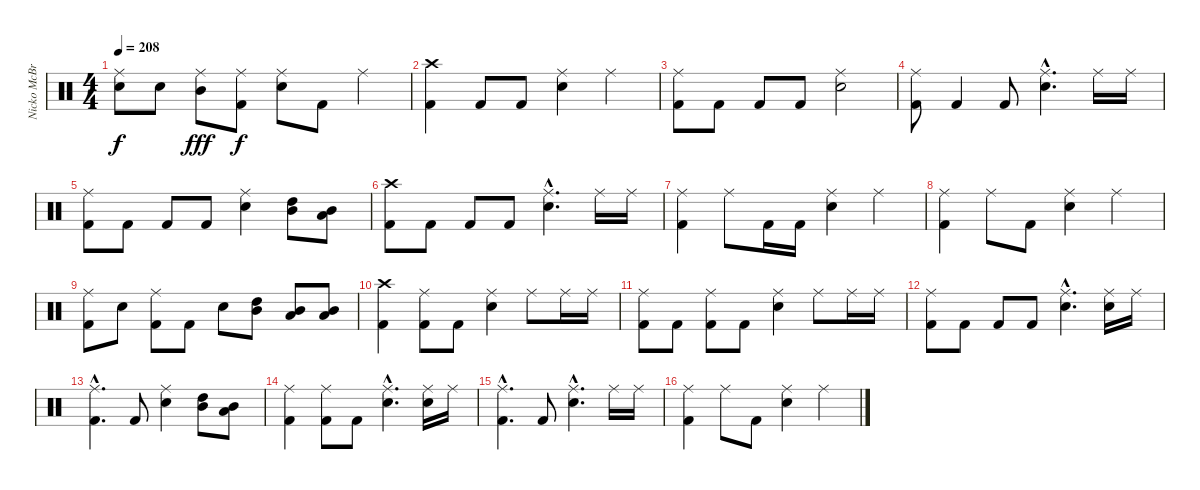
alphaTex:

\track ("Nicko McBrain" "Nicko McBr") {instrument percussion}
\staff {score}
\articulation defaults
\ts (4 4)
\tempo 208
\clef neutral
\ks c
("Ride (middle)" "Electric Snare (hit)").8{dy f} "Electric Snare (hit)".8 ("Ride (middle)" "Mid Tom (hit)").8{dy fff} ("Ride (middle)" "Kick (hit) 2").8{dy f} ("Ride (middle)" "Electric Snare (hit)").8 "Kick (hit) 2".8 "Ride (middle)".4 |
("Crash high (hit)" "Kick (hit) 2").4 "Kick (hit) 2".8 "Kick (hit) 2".8 ("Ride (middle)" "Electric Snare (hit)").4 "Ride (middle)".4 |
("Ride (middle)" "Kick (hit) 2").8 "Kick (hit) 2".8 "Kick (hit) 2".8 "Kick (hit) 2".8 ("Ride (middle)" "Electric Snare (hit)").2 |
("Ride (middle)" "Kick (hit) 2").8 "Kick (hit) 2".4 "Kick (hit) 2".8 ("Ride (middle)"{hac} "Electric Snare (hit)"{hac}).4{d} "Ride (middle)".16 "Ride (middle)".16 |
("Ride (middle)" "Kick (hit) 2").8 "Kick (hit) 2".8 "Kick (hit) 2".8 "Kick (hit) 2".8 ("Ride (middle)" "Electric Snare (hit)").4 ("High Tom (hit)" "Mid Tom (hit)").8 ("Mid Tom (hit)" "Low Tom (hit)").8 |
("Crash high (hit)" "Kick (hit) 2").8 "Kick (hit) 2".8 "Kick (hit) 2".8 "Kick (hit) 2".8 ("Ride (middle)"{hac} "Electric Snare (hit)"{hac}).4{d} "Ride (middle)".16 "Ride (middle)".16 |
("Ride (middle)" "Kick (hit) 2").4 "Ride (middle)".8 "Kick (hit) 2".16 "Kick (hit) 2".16 ("Ride (middle)" "Electric Snare (hit)").4 "Ride (middle)".4 |
("Ride (middle)" "Kick (hit) 2").4 "Ride (middle)".8 "Kick (hit) 2".8 ("Ride (middle)" "Electric Snare (hit)").4 "Ride (middle)".4 |
("Ride (middle)" "Kick (hit) 2").8 "Electric Snare (hit)".8 ("Ride (middle)" "Kick (hit) 2").8 "Kick (hit) 2".8 "Electric Snare (hit)".8 ("High Tom (hit)" "Mid Tom (hit)").8 ("Mid Tom (hit)" "Low Tom (hit)").8 ("Mid Tom (hit)" "Low Tom (hit)").8 |
("Crash high (hit)" "Kick (hit) 2").4 ("Ride (middle)" "Kick (hit) 2").8 "Kick (hit) 2".8 ("Ride (middle)" "Electric Snare (hit)").4 "Ride (middle)".8 "Ride (middle)".16 "Ride (middle)".16 |
("Ride (middle)" "Kick (hit) 2").8 "Kick (hit) 2".8 ("Ride (middle)" "Kick (hit) 2").8 "Kick (hit) 2".8 ("Ride (middle)" "Electric Snare (hit)").4 "Ride (middle)".8 "Ride (middle)".16 "Ride (middle)".16 |
("Ride (middle)" "Kick (hit) 2").8 "Kick (hit) 2".8 "Kick (hit) 2".8 "Kick (hit) 2".8 ("Ride (middle)"{hac} "Electric Snare (hit)"{hac}).4{d} ("Ride (middle)" "Electric Snare (hit)").16 "Ride (middle)".16 |
("Ride (middle)"{hac} "Kick (hit) 2"{hac}).4{d} "Kick (hit) 2".8 ("Ride (middle)" "Electric Snare (hit)").4 ("High Tom (hit)" "Mid Tom (hit)").8 ("Mid Tom (hit)" "Low Tom (hit)").8 |
("Ride (middle)" "Kick (hit) 2").4 ("Ride (middle)" "Kick (hit) 2").8 "Kick (hit) 2".8 ("Ride (middle)"{hac} "Electric Snare (hit)"{hac}).4{d} ("Ride (middle)" "Electric Snare (hit)").16 "Ride (middle)".16 |
("Ride (middle)"{hac} "Kick (hit) 2"{hac}).4{d} "Kick (hit) 2".8 ("Ride (middle)"{hac} "Electric Snare (hit)"{hac}).4{d} "Ride (middle)".16 "Ride (middle)".16 |
("Ride (middle)" "Kick (hit) 2").4 "Ride (middle)".8 "Kick (hit) 2".8 ("Ride (middle)" "Electric Snare (hit)").4 "Ride (middle)".4
